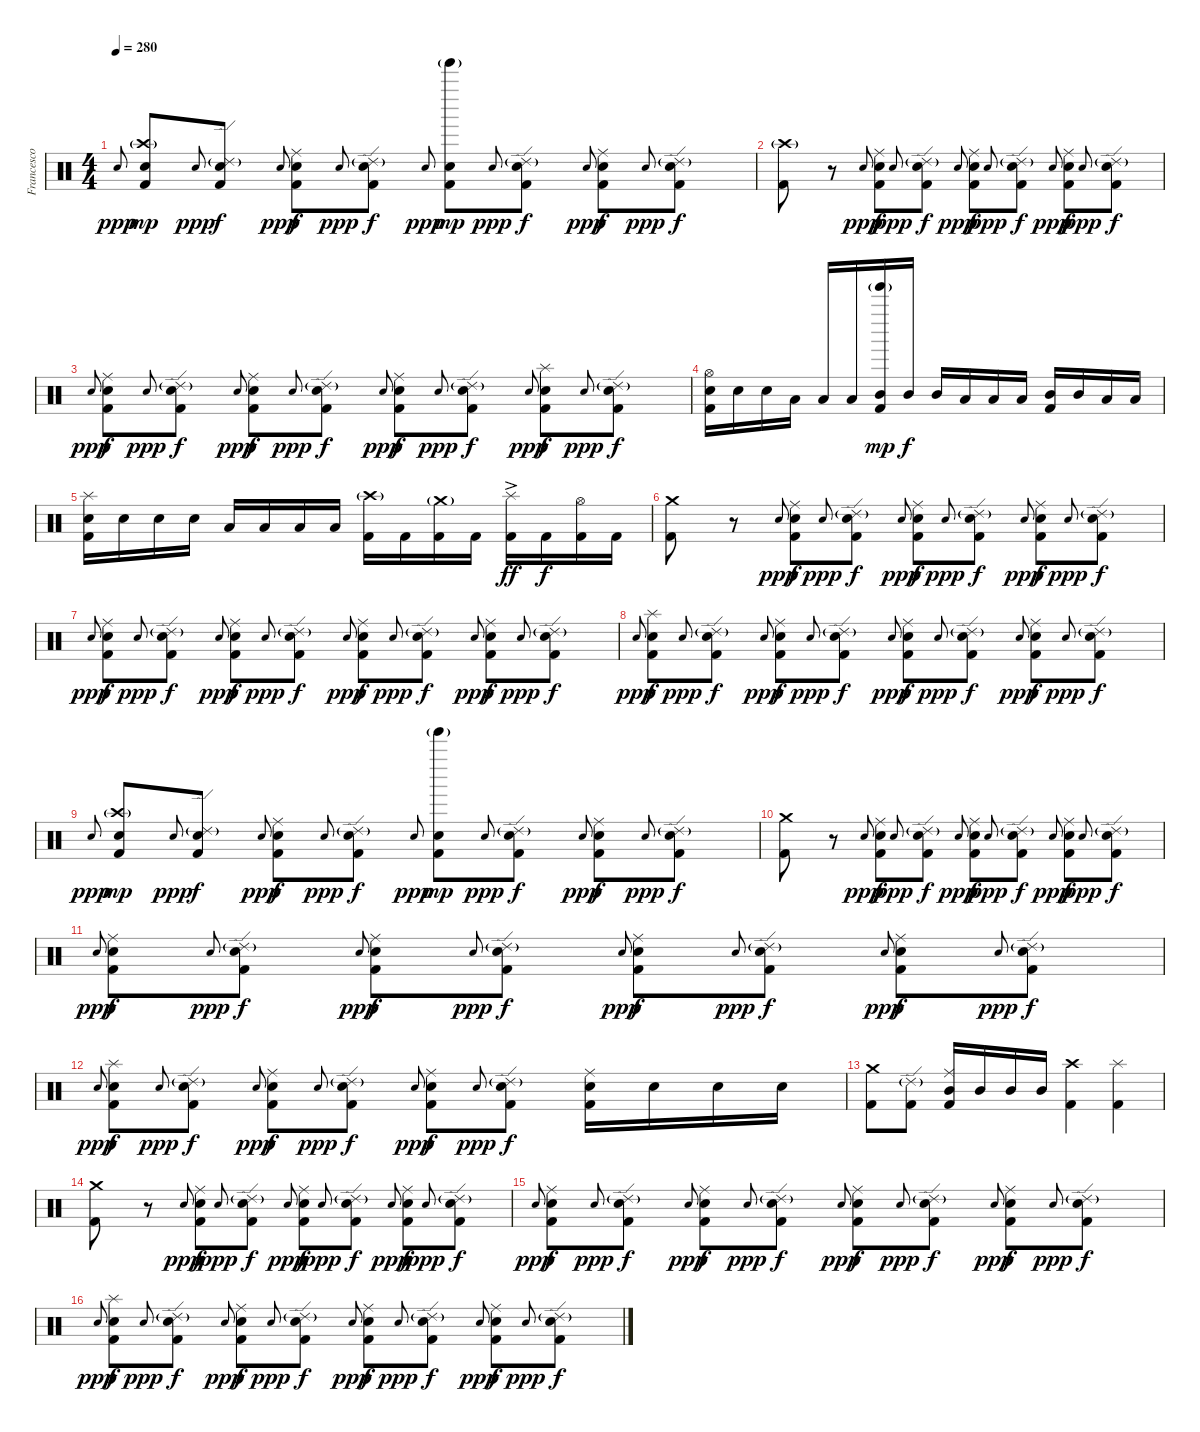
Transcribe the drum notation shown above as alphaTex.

\track ("Francesco Ferrini" "Francesco ") {instrument percussion}
\staff {score}
\articulation defaults
\ts (4 4)
\tempo 280
\clef neutral
\ks c "Electric Snare (hit)"{h}.8{gr onbeat dy ppp}
("Crash high (hit)"{g} "Electric Snare (hit)" "Kick (hit) 2").8{dy mp} "Electric Snare (hit)"{h}.8{gr onbeat dy ppp} ("Ride (edge) 2"{g} "Electric Snare (hit)" "Kick (hit) 2").8{dy f} "Electric Snare (hit)"{h}.8{gr onbeat dy ppp} ("Ride (middle)" "Electric Snare (hit)" "Kick (hit) 2").8{dy f} "Electric Snare (hit)"{h}.8{gr onbeat dy ppp} ("Ride (edge) 2"{g} "Electric Snare (hit)" "Kick (hit) 2").8{dy f} "Electric Snare (hit)"{h}.8{gr onbeat dy ppp} ("Tinkle Bell (hit)"{g} "Electric Snare (hit)" "Kick (hit) 2").8{dy mp} "Electric Snare (hit)"{h}.8{gr onbeat dy ppp} ("Ride (edge) 2"{g} "Electric Snare (hit)" "Kick (hit) 2").8{dy f} "Electric Snare (hit)"{h}.8{gr onbeat dy ppp} ("Ride (middle)" "Electric Snare (hit)" "Kick (hit) 2").8{dy f} "Electric Snare (hit)"{h}.8{gr onbeat dy ppp} ("Ride (edge) 2"{g} "Electric Snare (hit)" "Kick (hit) 2").8{dy f} |
("Crash high (hit)"{g} "Kick (hit) 2").8 r.8 "Electric Snare (hit)"{h}.8{gr onbeat dy ppp} ("Ride (middle)" "Electric Snare (hit)" "Kick (hit) 2").8{dy f} "Electric Snare (hit)"{h}.8{gr onbeat dy ppp} ("Ride (edge) 2"{g} "Electric Snare (hit)" "Kick (hit) 2").8{dy f} "Electric Snare (hit)"{h}.8{gr onbeat dy ppp} ("Ride (middle)" "Electric Snare (hit)" "Kick (hit) 2").8{dy f} "Electric Snare (hit)"{h}.8{gr onbeat dy ppp} ("Ride (edge) 2"{g} "Electric Snare (hit)" "Kick (hit) 2").8{dy f} "Electric Snare (hit)"{h}.8{gr onbeat dy ppp} ("Ride (middle)" "Electric Snare (hit)" "Kick (hit) 2").8{dy f} "Electric Snare (hit)"{h}.8{gr onbeat dy ppp} ("Ride (edge) 2"{g} "Electric Snare (hit)" "Kick (hit) 2").8{dy f} |
"Electric Snare (hit)"{h}.8{gr onbeat dy ppp} ("Ride (middle)" "Electric Snare (hit)" "Kick (hit) 2").8{dy f} "Electric Snare (hit)"{h}.8{gr onbeat dy ppp} ("Ride (edge) 2"{g} "Electric Snare (hit)" "Kick (hit) 2").8{dy f} "Electric Snare (hit)"{h}.8{gr onbeat dy ppp} ("Ride (middle)" "Electric Snare (hit)" "Kick (hit) 2").8{dy f} "Electric Snare (hit)"{h}.8{gr onbeat dy ppp} ("Ride (edge) 2"{g} "Electric Snare (hit)" "Kick (hit) 2").8{dy f} "Electric Snare (hit)"{h}.8{gr onbeat dy ppp} ("Ride (middle)" "Electric Snare (hit)" "Kick (hit) 2").8{dy f} "Electric Snare (hit)"{h}.8{gr onbeat dy ppp} ("Ride (edge) 2"{g} "Electric Snare (hit)" "Kick (hit) 2").8{dy f} "Electric Snare (hit)"{h}.8{gr onbeat dy ppp} ("Splash (hit)" "Electric Snare (hit)" "Kick (hit) 2").8{dy f} "Electric Snare (hit)"{h}.8{gr onbeat dy ppp} ("Ride (edge) 2"{g} "Electric Snare (hit)" "Kick (hit) 2").8{dy f} |
("Hi-Hat (open)" "Electric Snare (hit)" "Kick (hit) 2").16 "Electric Snare (hit)".16 "Electric Snare (hit)".16 "Low Tom (hit)".16 "Low Tom (hit)".16 "Low Tom (hit)".16 ("Tinkle Bell (hit)"{g} "Mid Tom (hit)" "Kick (hit) 2").16{dy mp} "Mid Tom (hit)".16{dy f} "Mid Tom (hit)".16 "Low Tom (hit)".16 "Low Tom (hit)".16 "Low Tom (hit)".16 ("Mid Tom (hit)" "Kick (hit) 2").16 "Mid Tom (hit)".16 "Low Tom (hit)".16 "Low Tom (hit)".16 |
("Splash (hit)" "Electric Snare (hit)" "Kick (hit) 2").16 "Electric Snare (hit)".16 "Electric Snare (hit)".16 "Electric Snare (hit)".16 "Low Tom (hit)".16 "Low Tom (hit)".16 "Low Tom (hit)".16 "Low Tom (hit)".16 ("Crash high (hit)"{g} "Kick (hit) 2").16 "Kick (hit) 2".16 ("Crash medium (hit)"{g} "Kick (hit) 2").16 "Kick (hit) 2".16 ("Splash (hit)"{ac} "Kick (hit) 2").16{dy ff} "Kick (hit) 2".16{dy f} ("Hi-Hat (open)" "Kick (hit) 2").16 "Kick (hit) 2".16 |
("Crash medium (hit)" "Kick (hit) 2").8 r.8 "Electric Snare (hit)"{h}.8{gr onbeat dy ppp} ("Ride (middle)" "Electric Snare (hit)" "Kick (hit) 2").8{dy f} "Electric Snare (hit)"{h}.8{gr onbeat dy ppp} ("Ride (edge) 2"{g} "Electric Snare (hit)" "Kick (hit) 2").8{dy f} "Electric Snare (hit)"{h}.8{gr onbeat dy ppp} ("Ride (middle)" "Electric Snare (hit)" "Kick (hit) 2").8{dy f} "Electric Snare (hit)"{h}.8{gr onbeat dy ppp} ("Ride (edge) 2"{g} "Electric Snare (hit)" "Kick (hit) 2").8{dy f} "Electric Snare (hit)"{h}.8{gr onbeat dy ppp} ("Ride (middle)" "Electric Snare (hit)" "Kick (hit) 2").8{dy f} "Electric Snare (hit)"{h}.8{gr onbeat dy ppp} ("Ride (edge) 2"{g} "Electric Snare (hit)" "Kick (hit) 2").8{dy f} |
"Electric Snare (hit)"{h}.8{gr onbeat dy ppp} ("Ride (middle)" "Electric Snare (hit)" "Kick (hit) 2").8{dy f} "Electric Snare (hit)"{h}.8{gr onbeat dy ppp} ("Ride (edge) 2"{g} "Electric Snare (hit)" "Kick (hit) 2").8{dy f} "Electric Snare (hit)"{h}.8{gr onbeat dy ppp} ("Ride (middle)" "Electric Snare (hit)" "Kick (hit) 2").8{dy f} "Electric Snare (hit)"{h}.8{gr onbeat dy ppp} ("Ride (edge) 2"{g} "Electric Snare (hit)" "Kick (hit) 2").8{dy f} "Electric Snare (hit)"{h}.8{gr onbeat dy ppp} ("Ride (middle)" "Electric Snare (hit)" "Kick (hit) 2").8{dy f} "Electric Snare (hit)"{h}.8{gr onbeat dy ppp} ("Ride (edge) 2"{g} "Electric Snare (hit)" "Kick (hit) 2").8{dy f} "Electric Snare (hit)"{h}.8{gr onbeat dy ppp} ("Ride (middle)" "Electric Snare (hit)" "Kick (hit) 2").8{dy f} "Electric Snare (hit)"{h}.8{gr onbeat dy ppp} ("Ride (edge) 2"{g} "Electric Snare (hit)" "Kick (hit) 2").8{dy f} |
"Electric Snare (hit)"{h}.8{gr onbeat dy ppp} ("Splash (hit)" "Electric Snare (hit)" "Kick (hit) 2").8{dy f} "Electric Snare (hit)"{h}.8{gr onbeat dy ppp} ("Ride (edge) 2"{g} "Electric Snare (hit)" "Kick (hit) 2").8{dy f} "Electric Snare (hit)"{h}.8{gr onbeat dy ppp} ("Ride (middle)" "Electric Snare (hit)" "Kick (hit) 2").8{dy f} "Electric Snare (hit)"{h}.8{gr onbeat dy ppp} ("Ride (edge) 2"{g} "Electric Snare (hit)" "Kick (hit) 2").8{dy f} "Electric Snare (hit)"{h}.8{gr onbeat dy ppp} ("Ride (middle)" "Electric Snare (hit)" "Kick (hit) 2").8{dy f} "Electric Snare (hit)"{h}.8{gr onbeat dy ppp} ("Ride (edge) 2"{g} "Electric Snare (hit)" "Kick (hit) 2").8{dy f} "Electric Snare (hit)"{h}.8{gr onbeat dy ppp} ("Ride (middle)" "Electric Snare (hit)" "Kick (hit) 2").8{dy f} "Electric Snare (hit)"{h}.8{gr onbeat dy ppp} ("Ride (edge) 2"{g} "Electric Snare (hit)" "Kick (hit) 2").8{dy f} |
"Electric Snare (hit)"{h}.8{gr onbeat dy ppp} ("Crash high (hit)"{g} "Electric Snare (hit)" "Kick (hit) 2").8{dy mp} "Electric Snare (hit)"{h}.8{gr onbeat dy ppp} ("Ride (edge) 2"{g} "Electric Snare (hit)" "Kick (hit) 2").8{dy f} "Electric Snare (hit)"{h}.8{gr onbeat dy ppp} ("Ride (middle)" "Electric Snare (hit)" "Kick (hit) 2").8{dy f} "Electric Snare (hit)"{h}.8{gr onbeat dy ppp} ("Ride (edge) 2"{g} "Electric Snare (hit)" "Kick (hit) 2").8{dy f} "Electric Snare (hit)"{h}.8{gr onbeat dy ppp} ("Tinkle Bell (hit)"{g} "Electric Snare (hit)" "Kick (hit) 2").8{dy mp} "Electric Snare (hit)"{h}.8{gr onbeat dy ppp} ("Ride (edge) 2"{g} "Electric Snare (hit)" "Kick (hit) 2").8{dy f} "Electric Snare (hit)"{h}.8{gr onbeat dy ppp} ("Ride (middle)" "Electric Snare (hit)" "Kick (hit) 2").8{dy f} "Electric Snare (hit)"{h}.8{gr onbeat dy ppp} ("Ride (edge) 2"{g} "Electric Snare (hit)" "Kick (hit) 2").8{dy f} |
("Crash medium (hit)" "Kick (hit) 2").8 r.8 "Electric Snare (hit)"{h}.8{gr onbeat dy ppp} ("Ride (middle)" "Electric Snare (hit)" "Kick (hit) 2").8{dy f} "Electric Snare (hit)"{h}.8{gr onbeat dy ppp} ("Ride (edge) 2"{g} "Electric Snare (hit)" "Kick (hit) 2").8{dy f} "Electric Snare (hit)"{h}.8{gr onbeat dy ppp} ("Ride (middle)" "Electric Snare (hit)" "Kick (hit) 2").8{dy f} "Electric Snare (hit)"{h}.8{gr onbeat dy ppp} ("Ride (edge) 2"{g} "Electric Snare (hit)" "Kick (hit) 2").8{dy f} "Electric Snare (hit)"{h}.8{gr onbeat dy ppp} ("Ride (middle)" "Electric Snare (hit)" "Kick (hit) 2").8{dy f} "Electric Snare (hit)"{h}.8{gr onbeat dy ppp} ("Ride (edge) 2"{g} "Electric Snare (hit)" "Kick (hit) 2").8{dy f} |
"Electric Snare (hit)"{h}.8{gr onbeat dy ppp} ("Ride (middle)" "Electric Snare (hit)" "Kick (hit) 2").8{dy f} "Electric Snare (hit)"{h}.8{gr onbeat dy ppp} ("Ride (edge) 2"{g} "Electric Snare (hit)" "Kick (hit) 2").8{dy f} "Electric Snare (hit)"{h}.8{gr onbeat dy ppp} ("Ride (middle)" "Electric Snare (hit)" "Kick (hit) 2").8{dy f} "Electric Snare (hit)"{h}.8{gr onbeat dy ppp} ("Ride (edge) 2"{g} "Electric Snare (hit)" "Kick (hit) 2").8{dy f} "Electric Snare (hit)"{h}.8{gr onbeat dy ppp} ("Ride (middle)" "Electric Snare (hit)" "Kick (hit) 2").8{dy f} "Electric Snare (hit)"{h}.8{gr onbeat dy ppp} ("Ride (edge) 2"{g} "Electric Snare (hit)" "Kick (hit) 2").8{dy f} "Electric Snare (hit)"{h}.8{gr onbeat dy ppp} ("Ride (middle)" "Electric Snare (hit)" "Kick (hit) 2").8{dy f} "Electric Snare (hit)"{h}.8{gr onbeat dy ppp} ("Ride (edge) 2"{g} "Electric Snare (hit)" "Kick (hit) 2").8{dy f} |
"Electric Snare (hit)"{h}.8{gr onbeat dy ppp} ("Splash (hit)" "Electric Snare (hit)" "Kick (hit) 2").8{dy f} "Electric Snare (hit)"{h}.8{gr onbeat dy ppp} ("Ride (edge) 2"{g} "Electric Snare (hit)" "Kick (hit) 2").8{dy f} "Electric Snare (hit)"{h}.8{gr onbeat dy ppp} ("Ride (middle)" "Electric Snare (hit)" "Kick (hit) 2").8{dy f} "Electric Snare (hit)"{h}.8{gr onbeat dy ppp} ("Ride (edge) 2"{g} "Electric Snare (hit)" "Kick (hit) 2").8{dy f} "Electric Snare (hit)"{h}.8{gr onbeat dy ppp} ("Ride (middle)" "Electric Snare (hit)" "Kick (hit) 2").8{dy f} "Electric Snare (hit)"{h}.8{gr onbeat dy ppp} ("Ride (edge) 2"{g} "Electric Snare (hit)" "Kick (hit) 2").8{dy f} ("Ride (middle)" "Electric Snare (hit)" "Kick (hit) 2").16 "Electric Snare (hit)".16 "Electric Snare (hit)".16 "Electric Snare (hit)".16 |
("Crash medium (hit)" "Kick (hit) 2").8 ("Ride (edge) 2"{g} "Kick (hit) 2").8 ("Mid Tom (hit)" "Ride (middle)" "Kick (hit) 2").16 "Mid Tom (hit)".16 "Mid Tom (hit)".16 "Mid Tom (hit)".16 ("Crash high (hit)" "Kick (hit) 2").4 ("Splash (hit)" "Kick (hit) 2").4 |
("Crash medium (hit)" "Kick (hit) 2").8 r.8 "Electric Snare (hit)"{h}.8{gr onbeat dy ppp} ("Ride (middle)" "Electric Snare (hit)" "Kick (hit) 2").8{dy f} "Electric Snare (hit)"{h}.8{gr onbeat dy ppp} ("Ride (edge) 2"{g} "Electric Snare (hit)" "Kick (hit) 2").8{dy f} "Electric Snare (hit)"{h}.8{gr onbeat dy ppp} ("Ride (middle)" "Electric Snare (hit)" "Kick (hit) 2").8{dy f} "Electric Snare (hit)"{h}.8{gr onbeat dy ppp} ("Ride (edge) 2"{g} "Electric Snare (hit)" "Kick (hit) 2").8{dy f} "Electric Snare (hit)"{h}.8{gr onbeat dy ppp} ("Ride (middle)" "Electric Snare (hit)" "Kick (hit) 2").8{dy f} "Electric Snare (hit)"{h}.8{gr onbeat dy ppp} ("Ride (edge) 2"{g} "Electric Snare (hit)" "Kick (hit) 2").8{dy f} |
"Electric Snare (hit)"{h}.8{gr onbeat dy ppp} ("Ride (middle)" "Electric Snare (hit)" "Kick (hit) 2").8{dy f} "Electric Snare (hit)"{h}.8{gr onbeat dy ppp} ("Ride (edge) 2"{g} "Electric Snare (hit)" "Kick (hit) 2").8{dy f} "Electric Snare (hit)"{h}.8{gr onbeat dy ppp} ("Ride (middle)" "Electric Snare (hit)" "Kick (hit) 2").8{dy f} "Electric Snare (hit)"{h}.8{gr onbeat dy ppp} ("Ride (edge) 2"{g} "Electric Snare (hit)" "Kick (hit) 2").8{dy f} "Electric Snare (hit)"{h}.8{gr onbeat dy ppp} ("Ride (middle)" "Electric Snare (hit)" "Kick (hit) 2").8{dy f} "Electric Snare (hit)"{h}.8{gr onbeat dy ppp} ("Ride (edge) 2"{g} "Electric Snare (hit)" "Kick (hit) 2").8{dy f} "Electric Snare (hit)"{h}.8{gr onbeat dy ppp} ("Ride (middle)" "Electric Snare (hit)" "Kick (hit) 2").8{dy f} "Electric Snare (hit)"{h}.8{gr onbeat dy ppp} ("Ride (edge) 2"{g} "Electric Snare (hit)" "Kick (hit) 2").8{dy f} |
"Electric Snare (hit)"{h}.8{gr onbeat dy ppp} ("Splash (hit)" "Electric Snare (hit)" "Kick (hit) 2").8{dy f} "Electric Snare (hit)"{h}.8{gr onbeat dy ppp} ("Ride (edge) 2"{g} "Electric Snare (hit)" "Kick (hit) 2").8{dy f} "Electric Snare (hit)"{h}.8{gr onbeat dy ppp} ("Ride (middle)" "Electric Snare (hit)" "Kick (hit) 2").8{dy f} "Electric Snare (hit)"{h}.8{gr onbeat dy ppp} ("Ride (edge) 2"{g} "Electric Snare (hit)" "Kick (hit) 2").8{dy f} "Electric Snare (hit)"{h}.8{gr onbeat dy ppp} ("Ride (middle)" "Electric Snare (hit)" "Kick (hit) 2").8{dy f} "Electric Snare (hit)"{h}.8{gr onbeat dy ppp} ("Ride (edge) 2"{g} "Electric Snare (hit)" "Kick (hit) 2").8{dy f} "Electric Snare (hit)"{h}.8{gr onbeat dy ppp} ("Ride (middle)" "Electric Snare (hit)" "Kick (hit) 2").8{dy f} "Electric Snare (hit)"{h}.8{gr onbeat dy ppp} ("Ride (edge) 2"{g} "Electric Snare (hit)" "Kick (hit) 2").8{dy f}
